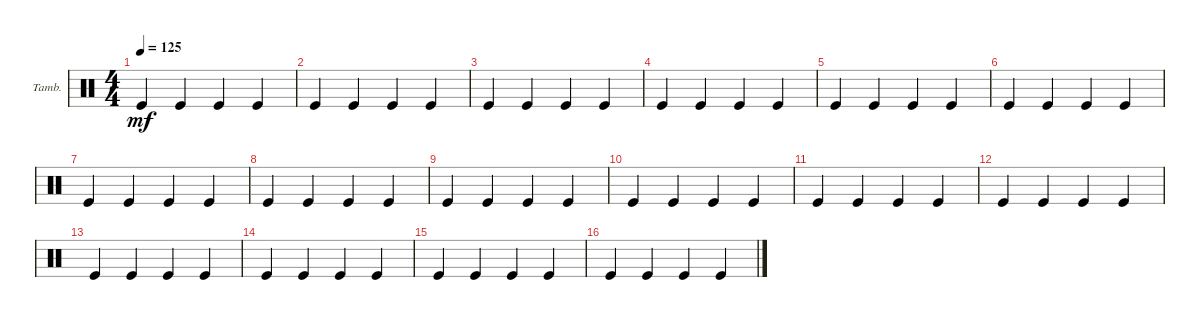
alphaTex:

\defaultSystemsLayout 4
\bracketExtendMode groupsimilarinstruments
\firstSystemTrackNameOrientation horizontal
\otherSystemsTrackNameOrientation horizontal
\track ("Tambourine" "Tamb.") {instrument percussion}
\staff {score}
\articulation defaults
\ts (4 4)
\tempo 125
\clef neutral
\ks c "Kick (hit)".4{dy mf} "Kick (hit)".4 "Kick (hit)".4 "Kick (hit)".4
|
"Kick (hit)".4 "Kick (hit)".4 "Kick (hit)".4 "Kick (hit)".4 |
"Kick (hit)".4 "Kick (hit)".4 "Kick (hit)".4 "Kick (hit)".4 |
"Kick (hit)".4 "Kick (hit)".4 "Kick (hit)".4 "Kick (hit)".4 |
"Kick (hit)".4 "Kick (hit)".4 "Kick (hit)".4 "Kick (hit)".4 |
"Kick (hit)".4 "Kick (hit)".4 "Kick (hit)".4 "Kick (hit)".4 |
"Kick (hit)".4 "Kick (hit)".4 "Kick (hit)".4 "Kick (hit)".4 |
"Kick (hit)".4 "Kick (hit)".4 "Kick (hit)".4 "Kick (hit)".4 |
"Kick (hit)".4 "Kick (hit)".4 "Kick (hit)".4 "Kick (hit)".4 |
"Kick (hit)".4 "Kick (hit)".4 "Kick (hit)".4 "Kick (hit)".4 |
"Kick (hit)".4 "Kick (hit)".4 "Kick (hit)".4 "Kick (hit)".4 |
"Kick (hit)".4 "Kick (hit)".4 "Kick (hit)".4 "Kick (hit)".4 |
"Kick (hit)".4 "Kick (hit)".4 "Kick (hit)".4 "Kick (hit)".4 |
"Kick (hit)".4 "Kick (hit)".4 "Kick (hit)".4 "Kick (hit)".4 |
"Kick (hit)".4 "Kick (hit)".4 "Kick (hit)".4 "Kick (hit)".4 |
"Kick (hit)".4 "Kick (hit)".4 "Kick (hit)".4 "Kick (hit)".4
